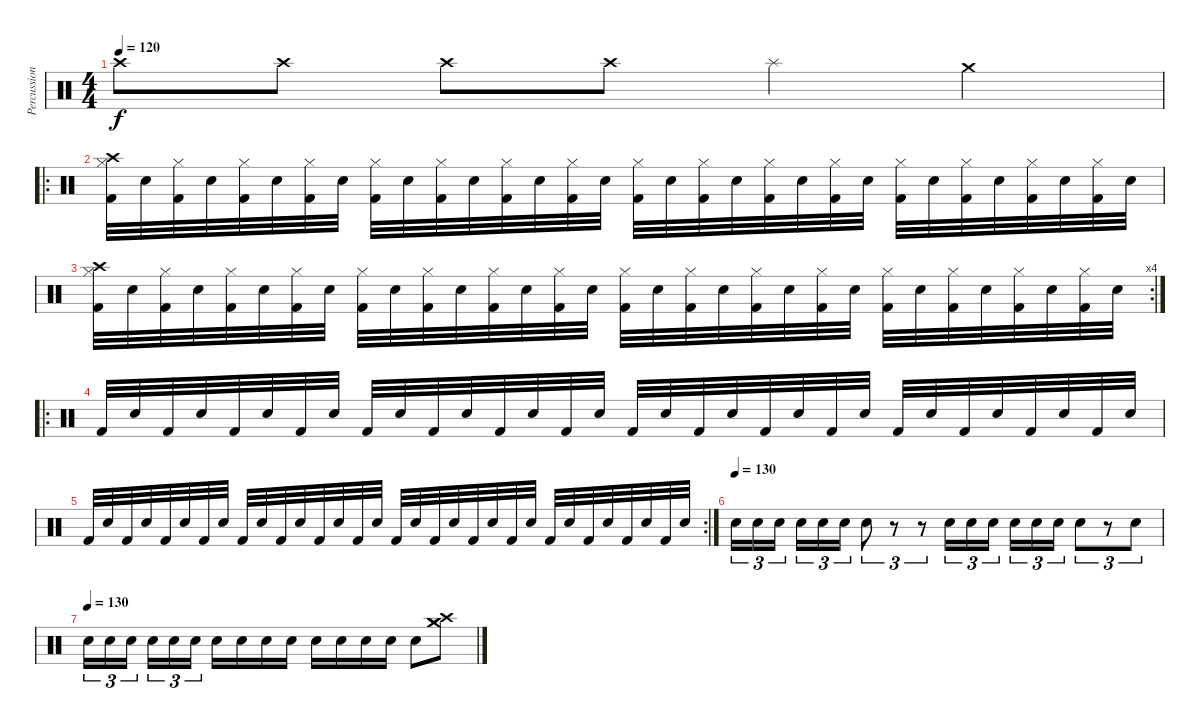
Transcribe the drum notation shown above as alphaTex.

\track ("Percussion" "Percussion") {instrument percussion}
\staff {score}
\articulation defaults
\ts (4 4)
\tempo 120
\clef neutral
\ks c "Crash high (hit)".8{dy f} "Crash high (hit)".8 "Crash high (hit)".8 "Crash high (hit)".8 "Splash (hit)".4 "Crash medium (hit)".4
|
\ro
("Crash high (hit)" "Kick (hit) 2" "Hi-Hat (closed)").32 "Snare (hit) 2".32 ("Kick (hit) 2" "Hi-Hat (closed)").32 "Snare (hit) 2".32 ("Kick (hit) 2" "Hi-Hat (closed)").32 "Snare (hit) 2".32 ("Kick (hit) 2" "Hi-Hat (closed)").32 "Snare (hit) 2".32 ("Kick (hit) 2" "Hi-Hat (closed)").32 "Snare (hit) 2".32 ("Kick (hit) 2" "Hi-Hat (closed)").32 "Snare (hit) 2".32 ("Kick (hit) 2" "Hi-Hat (closed)").32 "Snare (hit) 2".32 ("Kick (hit) 2" "Hi-Hat (closed)").32 "Snare (hit) 2".32 ("Kick (hit) 2" "Hi-Hat (closed)").32 "Snare (hit) 2".32 ("Kick (hit) 2" "Hi-Hat (closed)").32 "Snare (hit) 2".32 ("Kick (hit) 2" "Hi-Hat (closed)").32 "Snare (hit) 2".32 ("Kick (hit) 2" "Hi-Hat (closed)").32 "Snare (hit) 2".32 ("Kick (hit) 2" "Hi-Hat (closed)").32 "Snare (hit) 2".32 ("Kick (hit) 2" "Hi-Hat (closed)").32 "Snare (hit) 2".32 ("Kick (hit) 2" "Hi-Hat (closed)").32 "Snare (hit) 2".32 ("Kick (hit) 2" "Hi-Hat (closed)").32 "Snare (hit) 2".32 |
\rc 4
("Crash high (hit)" "Kick (hit) 2" "Hi-Hat (closed)").32 "Snare (hit) 2".32 ("Kick (hit) 2" "Hi-Hat (closed)").32 "Snare (hit) 2".32 ("Kick (hit) 2" "Hi-Hat (closed)").32 "Snare (hit) 2".32 ("Kick (hit) 2" "Hi-Hat (closed)").32 "Snare (hit) 2".32 ("Kick (hit) 2" "Hi-Hat (closed)").32 "Snare (hit) 2".32 ("Kick (hit) 2" "Hi-Hat (closed)").32 "Snare (hit) 2".32 ("Kick (hit) 2" "Hi-Hat (closed)").32 "Snare (hit) 2".32 ("Kick (hit) 2" "Hi-Hat (closed)").32 "Snare (hit) 2".32 ("Kick (hit) 2" "Hi-Hat (closed)").32 "Snare (hit) 2".32 ("Kick (hit) 2" "Hi-Hat (closed)").32 "Snare (hit) 2".32 ("Kick (hit) 2" "Hi-Hat (closed)").32 "Snare (hit) 2".32 ("Kick (hit) 2" "Hi-Hat (closed)").32 "Snare (hit) 2".32 ("Kick (hit) 2" "Hi-Hat (closed)").32 "Snare (hit) 2".32 ("Kick (hit) 2" "Hi-Hat (closed)").32 "Snare (hit) 2".32 ("Kick (hit) 2" "Hi-Hat (closed)").32 "Snare (hit) 2".32 ("Kick (hit) 2" "Hi-Hat (closed)").32 "Snare (hit) 2".32 |
\ro "Kick (hit) 2".32 "Snare (hit) 2".32 "Kick (hit) 2".32 "Snare (hit) 2".32 "Kick (hit) 2".32 "Snare (hit) 2".32 "Kick (hit) 2".32 "Snare (hit) 2".32 "Kick (hit) 2".32 "Snare (hit) 2".32 "Kick (hit) 2".32 "Snare (hit) 2".32 "Kick (hit) 2".32 "Snare (hit) 2".32 "Kick (hit) 2".32 "Snare (hit) 2".32 "Kick (hit) 2".32 "Snare (hit) 2".32 "Kick (hit) 2".32 "Snare (hit) 2".32 "Kick (hit) 2".32 "Snare (hit) 2".32 "Kick (hit) 2".32 "Snare (hit) 2".32 "Kick (hit) 2".32 "Snare (hit) 2".32 "Kick (hit) 2".32 "Snare (hit) 2".32 "Kick (hit) 2".32 "Snare (hit) 2".32 "Kick (hit) 2".32 "Snare (hit) 2".32
|
\rc 2 "Kick (hit) 2".32 "Snare (hit) 2".32 "Kick (hit) 2".32 "Snare (hit) 2".32 "Kick (hit) 2".32 "Snare (hit) 2".32 "Kick (hit) 2".32 "Snare (hit) 2".32 "Kick (hit) 2".32 "Snare (hit) 2".32 "Kick (hit) 2".32 "Snare (hit) 2".32 "Kick (hit) 2".32 "Snare (hit) 2".32 "Kick (hit) 2".32 "Snare (hit) 2".32 "Kick (hit) 2".32 "Snare (hit) 2".32 "Kick (hit) 2".32 "Snare (hit) 2".32 "Kick (hit) 2".32 "Snare (hit) 2".32 "Kick (hit) 2".32 "Snare (hit) 2".32 "Kick (hit) 2".32 "Snare (hit) 2".32 "Kick (hit) 2".32 "Snare (hit) 2".32 "Kick (hit) 2".32 "Snare (hit) 2".32 "Kick (hit) 2".32 "Snare (hit) 2".32
|
\tempo (130)
"Snare (hit) 2".16{tu (3 2)} "Snare (hit) 2".16{tu (3 2)} "Snare (hit) 2".16{tu (3 2)} "Snare (hit) 2".16{tu (3 2)} "Snare (hit) 2".16{tu (3 2)} "Snare (hit) 2".16{tu (3 2)} "Snare (hit) 2".8{tu (3 2)} r.8{tu (3 2)} r.8{tu (3 2)} "Snare (hit) 2".16{tu (3 2)} "Snare (hit) 2".16{tu (3 2)} "Snare (hit) 2".16{tu (3 2)} "Snare (hit) 2".16{tu (3 2)} "Snare (hit) 2".16{tu (3 2)} "Snare (hit) 2".16{tu (3 2)} "Snare (hit) 2".8{tu (3 2)} r.8{tu (3 2)} "Snare (hit) 2".8{tu (3 2)} |
\tempo (130)
"Snare (hit) 2".16{tu (3 2)} "Snare (hit) 2".16{tu (3 2)} "Snare (hit) 2".16{tu (3 2)} "Snare (hit) 2".16{tu (3 2)} "Snare (hit) 2".16{tu (3 2)} "Snare (hit) 2".16{tu (3 2)} "Snare (hit) 2".16 "Snare (hit) 2".16 "Snare (hit) 2".16 "Snare (hit) 2".16 "Snare (hit) 2".16 "Snare (hit) 2".16 "Snare (hit) 2".16 "Snare (hit) 2".16 "Snare (hit) 2".8 ("Crash medium (hit)" "Crash medium (hit)" "Crash high (hit)").8
